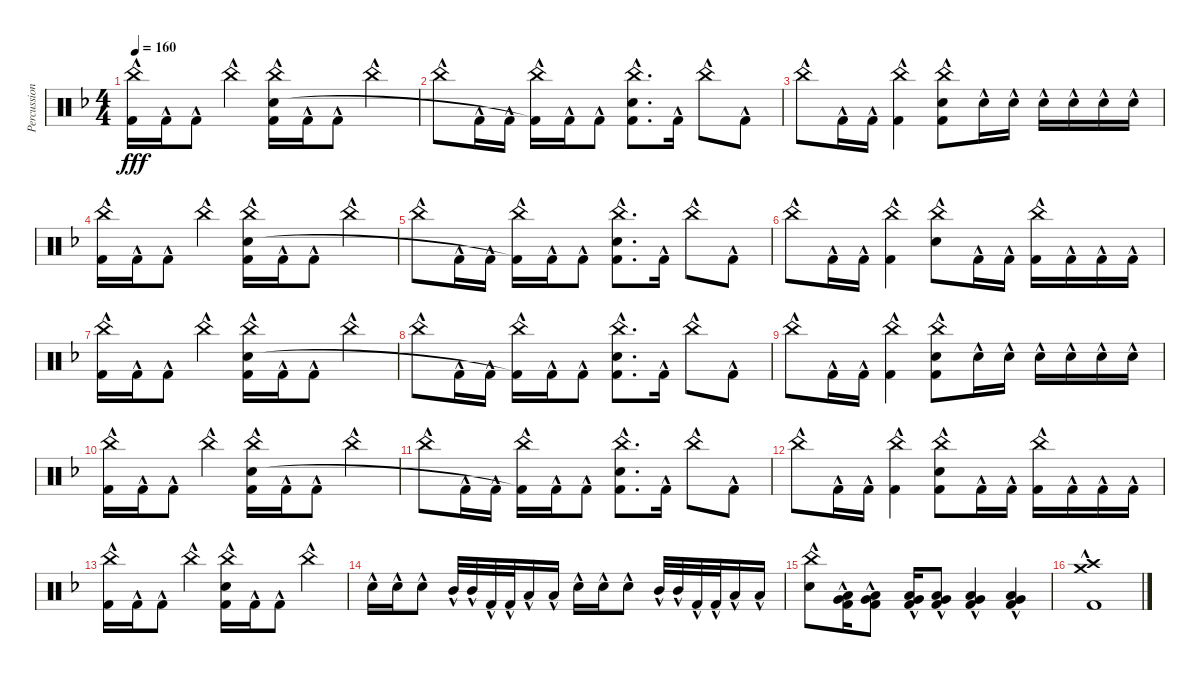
\track ("Percussion" "Percussion") {instrument percussion}
\staff {score}
\articulation defaults
\ts (4 4)
\tempo 160
\clef neutral
\ks f
("China (hit)"{hac} "Kick (hit) 2"{hac}).16{dy fff} "Kick (hit) 2"{hac}.16 "Kick (hit) 2"{hac}.8 "China (hit)"{hac}.4 ("China (hit)"{hac} "Electric Snare (hit)"{hac} "Kick (hit) 2"{hac}).16 "Kick (hit) 2"{hac}.16 "Kick (hit) 2"{hac}.8 "China (hit)"{hac}.4 |
"China (hit)"{hac}.8 "Kick (hit) 2"{hac}.16 "Kick (hit) 2"{hac}.16 ("China (hit)"{hac} "Kick (hit) 2"{t}).16 "Kick (hit) 2"{hac}.16 "Kick (hit) 2"{hac}.8 ("China (hit)"{hac} "Electric Snare (hit)"{hac} "Kick (hit) 2"{hac}).8{d} "Kick (hit) 2"{hac}.16 "China (hit)"{hac}.8 "Kick (hit) 2"{hac}.8 |
"China (hit)"{hac}.8 "Kick (hit) 2"{hac}.16 "Kick (hit) 2"{hac}.16 ("China (hit)"{hac} "Kick (hit) 2"{hac}).4 ("China (hit)"{hac} "Electric Snare (hit)"{hac} "Kick (hit) 2"{hac}).8 "Electric Snare (hit)"{hac}.16 "Electric Snare (hit)"{hac}.16 "Electric Snare (hit)"{hac}.16 "Electric Snare (hit)"{hac}.16 "Electric Snare (hit)"{hac}.16 "Electric Snare (hit)"{hac}.16 |
("China (hit)"{hac} "Kick (hit) 2"{hac}).16 "Kick (hit) 2"{hac}.16 "Kick (hit) 2"{hac}.8 "China (hit)"{hac}.4 ("China (hit)"{hac} "Electric Snare (hit)"{hac} "Kick (hit) 2"{hac}).16 "Kick (hit) 2"{hac}.16 "Kick (hit) 2"{hac}.8 "China (hit)"{hac}.4 |
"China (hit)"{hac}.8 "Kick (hit) 2"{hac}.16 "Kick (hit) 2"{hac}.16 ("China (hit)"{hac} "Kick (hit) 2"{t}).16 "Kick (hit) 2"{hac}.16 "Kick (hit) 2"{hac}.8 ("China (hit)"{hac} "Electric Snare (hit)"{hac} "Kick (hit) 2"{hac}).8{d} "Kick (hit) 2"{hac}.16 "China (hit)"{hac}.8 "Kick (hit) 2"{hac}.8 |
"China (hit)"{hac}.8 "Kick (hit) 2"{hac}.16 "Kick (hit) 2"{hac}.16 ("China (hit)"{hac} "Kick (hit) 2"{hac}).4 ("China (hit)"{hac} "Electric Snare (hit)"{hac}).8 "Kick (hit) 2"{hac}.16 "Kick (hit) 2"{hac}.16 ("China (hit)"{hac} "Kick (hit) 2"{hac}).16 "Kick (hit) 2"{hac}.16 "Kick (hit) 2"{hac}.16 "Kick (hit) 2"{hac}.16 |
("China (hit)"{hac} "Kick (hit) 2"{hac}).16 "Kick (hit) 2"{hac}.16 "Kick (hit) 2"{hac}.8 "China (hit)"{hac}.4 ("China (hit)"{hac} "Electric Snare (hit)"{hac} "Kick (hit) 2"{hac}).16 "Kick (hit) 2"{hac}.16 "Kick (hit) 2"{hac}.8 "China (hit)"{hac}.4 |
"China (hit)"{hac}.8 "Kick (hit) 2"{hac}.16 "Kick (hit) 2"{hac}.16 ("China (hit)"{hac} "Kick (hit) 2"{t}).16 "Kick (hit) 2"{hac}.16 "Kick (hit) 2"{hac}.8 ("China (hit)"{hac} "Electric Snare (hit)"{hac} "Kick (hit) 2"{hac}).8{d} "Kick (hit) 2"{hac}.16 "China (hit)"{hac}.8 "Kick (hit) 2"{hac}.8 |
"China (hit)"{hac}.8 "Kick (hit) 2"{hac}.16 "Kick (hit) 2"{hac}.16 ("China (hit)"{hac} "Kick (hit) 2"{hac}).4 ("China (hit)"{hac} "Electric Snare (hit)"{hac} "Kick (hit) 2"{hac}).8 "Electric Snare (hit)"{hac}.16 "Electric Snare (hit)"{hac}.16 "Electric Snare (hit)"{hac}.16 "Electric Snare (hit)"{hac}.16 "Electric Snare (hit)"{hac}.16 "Electric Snare (hit)"{hac}.16 |
("China (hit)"{hac} "Kick (hit) 2"{hac}).16 "Kick (hit) 2"{hac}.16 "Kick (hit) 2"{hac}.8 "China (hit)"{hac}.4 ("China (hit)"{hac} "Electric Snare (hit)"{hac} "Kick (hit) 2"{hac}).16 "Kick (hit) 2"{hac}.16 "Kick (hit) 2"{hac}.8 "China (hit)"{hac}.4 |
"China (hit)"{hac}.8 "Kick (hit) 2"{hac}.16 "Kick (hit) 2"{hac}.16 ("China (hit)"{hac} "Kick (hit) 2"{t}).16 "Kick (hit) 2"{hac}.16 "Kick (hit) 2"{hac}.8 ("China (hit)"{hac} "Electric Snare (hit)"{hac} "Kick (hit) 2"{hac}).8{d} "Kick (hit) 2"{hac}.16 "China (hit)"{hac}.8 "Kick (hit) 2"{hac}.8 |
"China (hit)"{hac}.8 "Kick (hit) 2"{hac}.16 "Kick (hit) 2"{hac}.16 ("China (hit)"{hac} "Kick (hit) 2"{hac}).4 ("China (hit)"{hac} "Electric Snare (hit)"{hac} "Kick (hit) 2"{hac}).8 "Kick (hit) 2"{hac}.16 "Kick (hit) 2"{hac}.16 ("China (hit)"{hac} "Kick (hit) 2"{hac}).16 "Kick (hit) 2"{hac}.16 "Kick (hit) 2"{hac}.16 "Kick (hit) 2"{hac}.16 |
("China (hit)"{hac} "Kick (hit) 2"{hac}).16 "Kick (hit) 2"{hac}.16 "Kick (hit) 2"{hac}.8 "China (hit)"{hac}.4 ("China (hit)"{hac} "Electric Snare (hit)"{hac} "Kick (hit) 2"{hac}).16 "Kick (hit) 2"{hac}.16 "Kick (hit) 2"{hac}.8 "China (hit)"{hac}.4 |
"Electric Snare (hit)"{hac}.16 "Electric Snare (hit)"{hac}.16 "Electric Snare (hit)"{hac}.8 "Mid Tom (hit)"{hac}.32 "Mid Tom (hit)"{hac}.32 "Kick (hit) 2"{hac}.32 "Kick (hit) 2"{hac}.32 "Low Tom (hit)"{hac}.16 "Low Tom (hit)"{hac}.16 "Electric Snare (hit)"{hac}.16 "Electric Snare (hit)"{hac}.16 "Electric Snare (hit)"{hac}.8 "Mid Tom (hit)"{hac}.32 "Mid Tom (hit)"{hac}.32 "Kick (hit) 2"{hac}.32 "Kick (hit) 2"{hac}.32 "Low Tom (hit)"{hac}.16 "Low Tom (hit)"{hac}.16 |
("China (hit)"{hac} "Electric Snare (hit)"{hac}).8 ("Very Low Tom (hit)"{hac} "Low Floor Tom (hit)"{hac} "Kick (hit) 2"{hac}).16 ("Very Low Tom (hit)"{hac} "Low Floor Tom (hit)"{hac} "Kick (hit) 2"{hac}).8 ("Very Low Tom (hit)"{hac} "Low Floor Tom (hit)"{hac} "Kick (hit) 2"{hac}).16 ("Very Low Tom (hit)"{hac} "Low Floor Tom (hit)"{hac} "Kick (hit) 2"{hac}).8 ("Very Low Tom (hit)"{hac} "Low Floor Tom (hit)"{hac} "Kick (hit) 2"{hac}).4 ("Very Low Tom (hit)"{hac} "Low Floor Tom (hit)"{hac} "Kick (hit) 2"{hac}).4 |
("Crash medium (hit)"{hac} "Crash high (hit)"{hac} "Kick (hit) 2"{hac}).1{volume 0}
